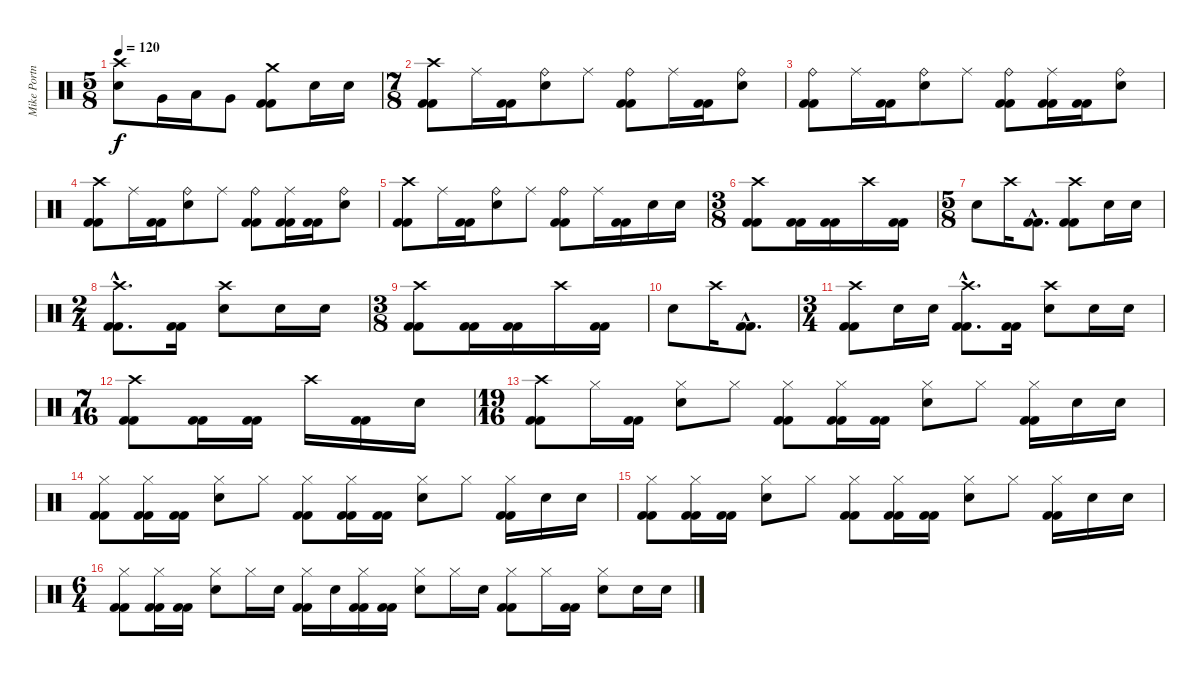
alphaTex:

\track ("Mike Portnoy" "Mike Portn") {instrument percussion}
\staff {score}
\articulation defaults
\ts (5 8)
\tempo 120
\clef neutral
\ks c
("Crash high (hit)" "Snare (hit) 2").8{dy f} "Very Low Tom (hit)".16 "Low Tom (hit)".16 "Very Low Tom (hit)".8 ("Crash medium (hit)" "Kick (hit) 2" "Kick (hit) 2").8 "Snare (hit) 2".16 "Snare (hit) 2".16 |
\ts (7 8)
("Crash high (hit)" "Kick (hit) 2" "Kick (hit) 2").8 "Ride (middle)".16 ("Kick (hit) 2" "Kick (hit) 2").16 ("Ride (bell)" "Snare (hit) 2").8 "Ride (middle)".8 ("Ride (bell)" "Kick (hit) 2" "Kick (hit) 2").8 "Ride (middle)".16 ("Kick (hit) 2" "Kick (hit) 2").16 ("Ride (bell)" "Snare (hit) 2").8 |
("Ride (bell)" "Kick (hit) 2" "Kick (hit) 2").8 "Ride (middle)".16 ("Kick (hit) 2" "Kick (hit) 2").16 ("Ride (bell)" "Snare (hit) 2").8 "Ride (middle)".8 ("Ride (bell)" "Kick (hit) 2" "Kick (hit) 2").8 ("Ride (middle)" "Kick (hit) 2" "Kick (hit) 2").16 ("Kick (hit) 2" "Kick (hit) 2").16 ("Ride (bell)" "Snare (hit) 2").8 |
("Crash high (hit)" "Kick (hit) 2" "Kick (hit) 2").8 "Ride (middle)".16 ("Kick (hit) 2" "Kick (hit) 2").16 ("Ride (bell)" "Snare (hit) 2").8 "Ride (middle)".8 ("Ride (bell)" "Kick (hit) 2" "Kick (hit) 2").8 ("Ride (middle)" "Kick (hit) 2" "Kick (hit) 2").16 ("Kick (hit) 2" "Kick (hit) 2").16 ("Ride (bell)" "Snare (hit) 2").8 |
("Crash high (hit)" "Kick (hit) 2" "Kick (hit) 2").8 "Ride (middle)".16 ("Kick (hit) 2" "Kick (hit) 2").16 ("Ride (bell)" "Snare (hit) 2").8 "Ride (middle)".8 ("Ride (bell)" "Kick (hit) 2" "Kick (hit) 2").8 "Ride (middle)".16 ("Kick (hit) 2" "Kick (hit) 2").16 "Snare (hit) 2".16 "Snare (hit) 2".16 |
\ts (3 8)
("Crash high (hit)" "Kick (hit) 2" "Kick (hit) 2").8 ("Kick (hit) 2" "Kick (hit) 2").16 ("Kick (hit) 2" "Kick (hit) 2").16 "Crash high (hit)".16 ("Kick (hit) 2" "Kick (hit) 2").16 |
\ts (5 8)
"Snare (hit) 2".8 "Crash high (hit)".16 ("Kick (hit) 2"{hac} "Kick (hit) 2"{hac}).8{d} ("Crash high (hit)" "Kick (hit) 2" "Kick (hit) 2").8 "Snare (hit) 2".16 "Snare (hit) 2".16 |
\ts (2 4)
("Crash high (hit)"{hac} "Kick (hit) 2"{hac} "Kick (hit) 2"{hac}).8{d} ("Kick (hit) 2" "Kick (hit) 2").16 ("Crash high (hit)" "Snare (hit) 2").8 "Snare (hit) 2".16 "Snare (hit) 2".16 |
\ts (3 8)
("Crash high (hit)" "Kick (hit) 2" "Kick (hit) 2").8 ("Kick (hit) 2" "Kick (hit) 2").16 ("Kick (hit) 2" "Kick (hit) 2").16 "Crash high (hit)".16 ("Kick (hit) 2" "Kick (hit) 2").16 |
"Snare (hit) 2".8 "Crash high (hit)".16 ("Kick (hit) 2"{hac} "Kick (hit) 2"{hac}).8{d} |
\ts (3 4)
("Crash high (hit)" "Kick (hit) 2" "Kick (hit) 2").8 "Snare (hit) 2".16 "Snare (hit) 2".16 ("Crash high (hit)"{hac} "Kick (hit) 2"{hac} "Kick (hit) 2"{hac}).8{d} ("Kick (hit) 2" "Kick (hit) 2").16 ("Crash high (hit)" "Snare (hit) 2").8 "Snare (hit) 2".16 "Snare (hit) 2".16 |
\ts (7 16)
("Crash high (hit)" "Kick (hit) 2" "Kick (hit) 2").8 ("Kick (hit) 2" "Kick (hit) 2").16 ("Kick (hit) 2" "Kick (hit) 2").16 "Crash high (hit)".16 ("Kick (hit) 2" "Kick (hit) 2").16 "Snare (hit) 2".16 |
\ts (19 16)
("Crash high (hit)" "Kick (hit) 2" "Kick (hit) 2").8 "Hi-Hat (closed)".16 ("Kick (hit) 2" "Kick (hit) 2").16 ("Hi-Hat (closed)" "Snare (hit) 2").8 "Hi-Hat (closed)".8 ("Hi-Hat (closed)" "Kick (hit) 2" "Kick (hit) 2").8 ("Hi-Hat (closed)" "Kick (hit) 2" "Kick (hit) 2").16 ("Kick (hit) 2" "Kick (hit) 2").16 ("Hi-Hat (closed)" "Snare (hit) 2").8 "Hi-Hat (closed)".8 ("Hi-Hat (closed)" "Kick (hit) 2" "Kick (hit) 2").16 "Snare (hit) 2".16 "Snare (hit) 2".16 |
("Hi-Hat (closed)" "Kick (hit) 2" "Kick (hit) 2").8 ("Hi-Hat (closed)" "Kick (hit) 2" "Kick (hit) 2").16 ("Kick (hit) 2" "Kick (hit) 2").16 ("Hi-Hat (closed)" "Snare (hit) 2").8 "Hi-Hat (closed)".8 ("Hi-Hat (closed)" "Kick (hit) 2" "Kick (hit) 2").8 ("Hi-Hat (closed)" "Kick (hit) 2" "Kick (hit) 2").16 ("Kick (hit) 2" "Kick (hit) 2").16 ("Hi-Hat (closed)" "Snare (hit) 2").8 "Hi-Hat (closed)".8 ("Hi-Hat (closed)" "Kick (hit) 2" "Kick (hit) 2").16 "Snare (hit) 2".16 "Snare (hit) 2".16 |
("Hi-Hat (closed)" "Kick (hit) 2" "Kick (hit) 2").8 ("Hi-Hat (closed)" "Kick (hit) 2" "Kick (hit) 2").16 ("Kick (hit) 2" "Kick (hit) 2").16 ("Hi-Hat (closed)" "Snare (hit) 2").8 "Hi-Hat (closed)".8 ("Hi-Hat (closed)" "Kick (hit) 2" "Kick (hit) 2").8 ("Hi-Hat (closed)" "Kick (hit) 2" "Kick (hit) 2").16 ("Kick (hit) 2" "Kick (hit) 2").16 ("Hi-Hat (closed)" "Snare (hit) 2").8 "Hi-Hat (closed)".8 ("Hi-Hat (closed)" "Kick (hit) 2" "Kick (hit) 2").16 "Snare (hit) 2".16 "Snare (hit) 2".16 |
\ts (6 4)
("Hi-Hat (closed)" "Kick (hit) 2" "Kick (hit) 2").8 ("Hi-Hat (closed)" "Kick (hit) 2" "Kick (hit) 2").16 ("Kick (hit) 2" "Kick (hit) 2").16 ("Hi-Hat (closed)" "Snare (hit) 2").8 "Hi-Hat (closed)".16 "Snare (hit) 2".16 ("Hi-Hat (closed)" "Kick (hit) 2" "Kick (hit) 2").16 "Snare (hit) 2".16 ("Hi-Hat (closed)" "Kick (hit) 2" "Kick (hit) 2").16 ("Kick (hit) 2" "Kick (hit) 2").16 ("Hi-Hat (closed)" "Snare (hit) 2").8 "Hi-Hat (closed)".16 "Snare (hit) 2".16 ("Hi-Hat (closed)" "Kick (hit) 2" "Kick (hit) 2").8 "Hi-Hat (closed)".16 ("Kick (hit) 2" "Kick (hit) 2").16 ("Hi-Hat (closed)" "Snare (hit) 2").8 "Snare (hit) 2".16 "Snare (hit) 2".16
